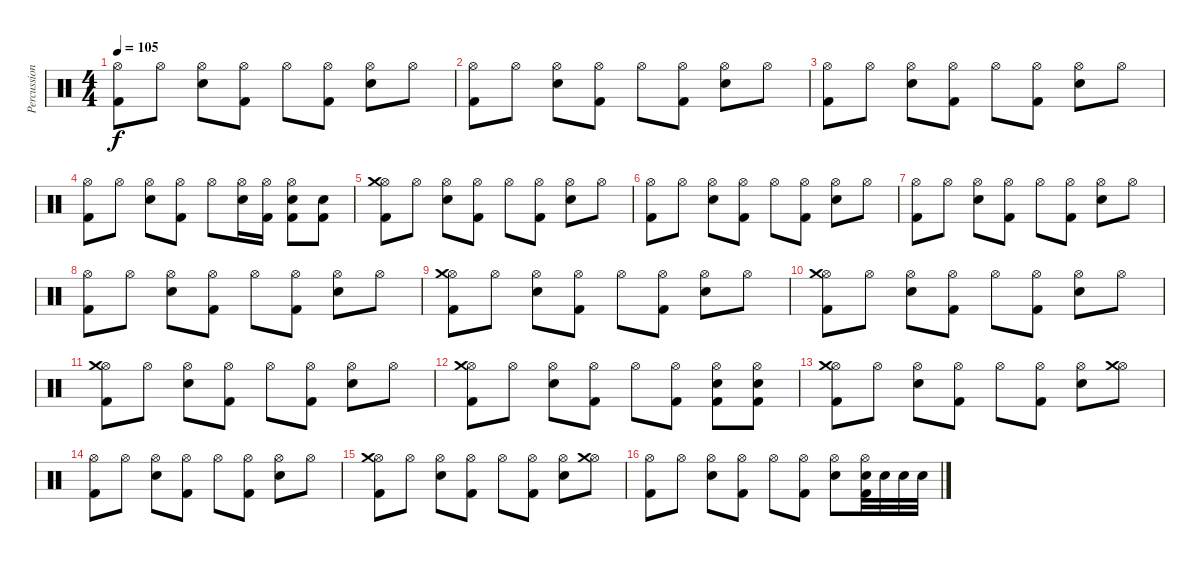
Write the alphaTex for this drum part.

\track ("Percussion" "Percussion") {instrument percussion}
\staff {score}
\articulation defaults
\ts (4 4)
\tempo 105
\clef neutral
\ks c
("Hi-Hat (open)" "Kick (hit) 2").8{dy f} "Hi-Hat (open)".8 ("Hi-Hat (open)" "Snare (hit) 2").8 ("Hi-Hat (open)" "Kick (hit) 2").8 "Hi-Hat (open)".8 ("Hi-Hat (open)" "Kick (hit) 2").8 ("Hi-Hat (open)" "Snare (hit) 2").8 "Hi-Hat (open)".8 |
("Hi-Hat (open)" "Kick (hit) 2").8 "Hi-Hat (open)".8 ("Hi-Hat (open)" "Snare (hit) 2").8 ("Hi-Hat (open)" "Kick (hit) 2").8 "Hi-Hat (open)".8 ("Hi-Hat (open)" "Kick (hit) 2").8 ("Hi-Hat (open)" "Snare (hit) 2").8 "Hi-Hat (open)".8 |
("Hi-Hat (open)" "Kick (hit) 2").8 "Hi-Hat (open)".8 ("Hi-Hat (open)" "Snare (hit) 2").8 ("Hi-Hat (open)" "Kick (hit) 2").8 "Hi-Hat (open)".8 ("Hi-Hat (open)" "Kick (hit) 2").8 ("Hi-Hat (open)" "Snare (hit) 2").8 "Hi-Hat (open)".8 |
("Hi-Hat (open)" "Kick (hit) 2").8 "Hi-Hat (open)".8 ("Hi-Hat (open)" "Snare (hit) 2").8 ("Hi-Hat (open)" "Kick (hit) 2").8 "Hi-Hat (open)".8 ("Hi-Hat (open)" "Snare (hit) 2").16{volume 14} ("Hi-Hat (open)" "Kick (hit) 2").16 ("Hi-Hat (open)" "Kick (hit) 2" "Snare (hit) 2").8 ("Kick (hit) 2" "Snare (hit) 2").8 |
("Hi-Hat (open)" "Kick (hit) 2" "Crash medium (hit)").8{volume 13} "Hi-Hat (open)".8 ("Hi-Hat (open)" "Snare (hit) 2").8 ("Hi-Hat (open)" "Kick (hit) 2").8 "Hi-Hat (open)".8 ("Hi-Hat (open)" "Kick (hit) 2").8 ("Hi-Hat (open)" "Snare (hit) 2").8 "Hi-Hat (open)".8 |
("Hi-Hat (open)" "Kick (hit) 2").8 "Hi-Hat (open)".8 ("Hi-Hat (open)" "Snare (hit) 2").8 ("Hi-Hat (open)" "Kick (hit) 2").8 "Hi-Hat (open)".8 ("Hi-Hat (open)" "Kick (hit) 2").8 ("Hi-Hat (open)" "Snare (hit) 2").8 "Hi-Hat (open)".8 |
("Hi-Hat (open)" "Kick (hit) 2").8 "Hi-Hat (open)".8 ("Hi-Hat (open)" "Snare (hit) 2").8 ("Hi-Hat (open)" "Kick (hit) 2").8 "Hi-Hat (open)".8 ("Hi-Hat (open)" "Kick (hit) 2").8 ("Hi-Hat (open)" "Snare (hit) 2").8 "Hi-Hat (open)".8 |
("Hi-Hat (open)" "Kick (hit) 2").8 "Hi-Hat (open)".8 ("Hi-Hat (open)" "Snare (hit) 2").8 ("Hi-Hat (open)" "Kick (hit) 2").8 "Hi-Hat (open)".8 ("Hi-Hat (open)" "Kick (hit) 2").8 ("Hi-Hat (open)" "Snare (hit) 2").8 "Hi-Hat (open)".8 |
("Hi-Hat (open)" "Kick (hit) 2" "Crash medium (hit)").8 "Hi-Hat (open)".8 ("Hi-Hat (open)" "Snare (hit) 2").8 ("Hi-Hat (open)" "Kick (hit) 2").8 "Hi-Hat (open)".8 ("Hi-Hat (open)" "Kick (hit) 2").8 ("Hi-Hat (open)" "Snare (hit) 2").8 "Hi-Hat (open)".8 |
("Hi-Hat (open)" "Kick (hit) 2" "Crash medium (hit)").8 "Hi-Hat (open)".8 ("Hi-Hat (open)" "Snare (hit) 2").8 ("Hi-Hat (open)" "Kick (hit) 2").8 "Hi-Hat (open)".8 ("Hi-Hat (open)" "Kick (hit) 2").8 ("Hi-Hat (open)" "Snare (hit) 2").8 "Hi-Hat (open)".8 |
("Hi-Hat (open)" "Kick (hit) 2" "Crash medium (hit)").8 "Hi-Hat (open)".8 ("Hi-Hat (open)" "Snare (hit) 2").8 ("Hi-Hat (open)" "Kick (hit) 2").8 "Hi-Hat (open)".8 ("Hi-Hat (open)" "Kick (hit) 2").8 ("Hi-Hat (open)" "Snare (hit) 2").8 "Hi-Hat (open)".8 |
("Hi-Hat (open)" "Kick (hit) 2" "Crash medium (hit)").8 "Hi-Hat (open)".8 ("Hi-Hat (open)" "Snare (hit) 2").8 ("Hi-Hat (open)" "Kick (hit) 2").8 "Hi-Hat (open)".8 ("Hi-Hat (open)" "Kick (hit) 2").8{volume 14} ("Hi-Hat (open)" "Kick (hit) 2" "Snare (hit) 2").8 ("Hi-Hat (open)" "Kick (hit) 2" "Snare (hit) 2").8 |
("Hi-Hat (open)" "Kick (hit) 2" "Crash medium (hit)").8{volume 13} "Hi-Hat (open)".8 ("Hi-Hat (open)" "Snare (hit) 2").8 ("Hi-Hat (open)" "Kick (hit) 2").8 "Hi-Hat (open)".8 ("Hi-Hat (open)" "Kick (hit) 2").8 ("Hi-Hat (open)" "Snare (hit) 2").8 ("Hi-Hat (open)" "Crash medium (hit)").8 |
("Hi-Hat (open)" "Kick (hit) 2").8 "Hi-Hat (open)".8 ("Hi-Hat (open)" "Snare (hit) 2").8 ("Hi-Hat (open)" "Kick (hit) 2").8 "Hi-Hat (open)".8 ("Hi-Hat (open)" "Kick (hit) 2").8 ("Hi-Hat (open)" "Snare (hit) 2").8 "Hi-Hat (open)".8 |
("Hi-Hat (open)" "Kick (hit) 2" "Crash medium (hit)").8 "Hi-Hat (open)".8 ("Hi-Hat (open)" "Snare (hit) 2").8 ("Hi-Hat (open)" "Kick (hit) 2").8 "Hi-Hat (open)".8 ("Hi-Hat (open)" "Kick (hit) 2").8 ("Hi-Hat (open)" "Snare (hit) 2").8 ("Hi-Hat (open)" "Crash medium (hit)").8 |
("Hi-Hat (open)" "Kick (hit) 2").8 "Hi-Hat (open)".8 ("Hi-Hat (open)" "Snare (hit) 2").8 ("Hi-Hat (open)" "Kick (hit) 2").8 "Hi-Hat (open)".8 ("Hi-Hat (open)" "Kick (hit) 2").8 ("Hi-Hat (open)" "Snare (hit) 2").8 ("Hi-Hat (open)" "Kick (hit) 2" "Snare (hit) 2").32{volume 16} "Snare (hit) 2".32 "Snare (hit) 2".32 "Snare (hit) 2".32
